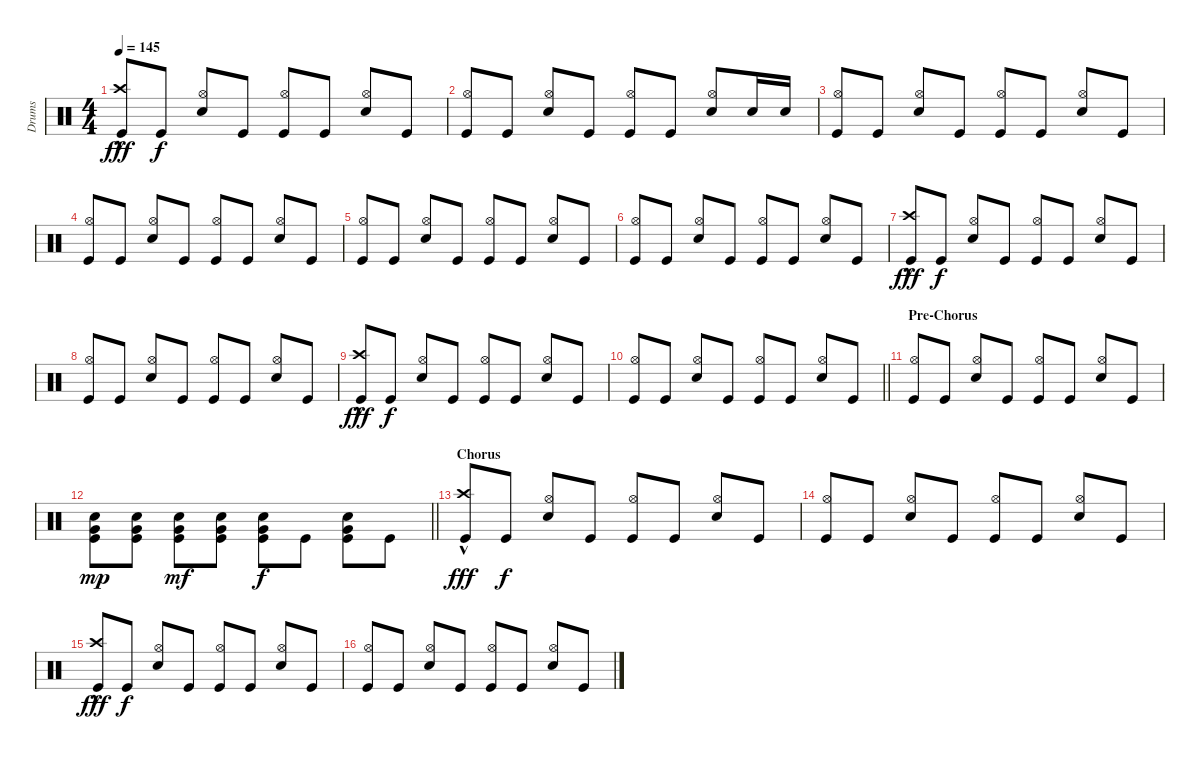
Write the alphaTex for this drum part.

\track ("Drums" "Drums") {instrument percussion}
\staff {score}
\articulation defaults
\ts (4 4)
\tempo 145
\clef neutral
\ks c
("Crash high (hit)"{hac} "Kick (hit)").8{dy fff beam Up} "Kick (hit)".8{dy f beam Up} ("Hi-Hat (open)" "Snare (hit) 2").8{beam Up} "Kick (hit)".8{beam Up} ("Hi-Hat (open)" "Kick (hit)").8{beam Up} "Kick (hit)".8{beam Up} ("Hi-Hat (open)" "Snare (hit) 2").8{beam Up} "Kick (hit)".8{beam Up} |
("Hi-Hat (open)" "Kick (hit)").8{beam Up} "Kick (hit)".8{beam Up} ("Hi-Hat (open)" "Snare (hit) 2").8{beam Up} "Kick (hit)".8{beam Up} ("Hi-Hat (open)" "Kick (hit)").8{beam Up} "Kick (hit)".8{beam Up} ("Hi-Hat (open)" "Snare (hit) 2").8{beam Up} "Snare (hit) 2".16{beam Up} "Snare (hit) 2".16{beam Up} |
("Hi-Hat (open)" "Kick (hit)").8{beam Up} "Kick (hit)".8{beam Up} ("Hi-Hat (open)" "Snare (hit) 2").8{beam Up} "Kick (hit)".8{beam Up} ("Hi-Hat (open)" "Kick (hit)").8{beam Up} "Kick (hit)".8{beam Up} ("Hi-Hat (open)" "Snare (hit) 2").8{beam Up} "Kick (hit)".8{beam Up} |
("Hi-Hat (open)" "Kick (hit)").8{beam Up} "Kick (hit)".8{beam Up} ("Hi-Hat (open)" "Snare (hit) 2").8{beam Up} "Kick (hit)".8{beam Up} ("Hi-Hat (open)" "Kick (hit)").8{beam Up} "Kick (hit)".8{beam Up} ("Hi-Hat (open)" "Snare (hit) 2").8{beam Up} "Kick (hit)".8{beam Up} |
("Hi-Hat (open)" "Kick (hit)").8{beam Up} "Kick (hit)".8{beam Up} ("Hi-Hat (open)" "Snare (hit) 2").8{beam Up} "Kick (hit)".8{beam Up} ("Hi-Hat (open)" "Kick (hit)").8{beam Up} "Kick (hit)".8{beam Up} ("Hi-Hat (open)" "Snare (hit) 2").8{beam Up} "Kick (hit)".8{beam Up} |
("Hi-Hat (open)" "Kick (hit)").8{beam Up} "Kick (hit)".8{beam Up} ("Hi-Hat (open)" "Snare (hit) 2").8{beam Up} "Kick (hit)".8{beam Up} ("Hi-Hat (open)" "Kick (hit)").8{beam Up} "Kick (hit)".8{beam Up} ("Hi-Hat (open)" "Snare (hit) 2").8{beam Up} "Kick (hit)".8{beam Up} |
("Crash high (hit)"{hac} "Kick (hit)").8{dy fff beam Up} "Kick (hit)".8{dy f beam Up} ("Hi-Hat (open)" "Snare (hit) 2").8{beam Up} "Kick (hit)".8{beam Up} ("Hi-Hat (open)" "Kick (hit)").8{beam Up} "Kick (hit)".8{beam Up} ("Hi-Hat (open)" "Snare (hit) 2").8{beam Up} "Kick (hit)".8{beam Up} |
("Hi-Hat (open)" "Kick (hit)").8{beam Up} "Kick (hit)".8{beam Up} ("Hi-Hat (open)" "Snare (hit) 2").8{beam Up} "Kick (hit)".8{beam Up} ("Hi-Hat (open)" "Kick (hit)").8{beam Up} "Kick (hit)".8{beam Up} ("Hi-Hat (open)" "Snare (hit) 2").8{beam Up} "Kick (hit)".8{beam Up} |
("Crash high (hit)"{hac} "Kick (hit)").8{dy fff beam Up} "Kick (hit)".8{dy f beam Up} ("Hi-Hat (open)" "Snare (hit) 2").8{beam Up} "Kick (hit)".8{beam Up} ("Hi-Hat (open)" "Kick (hit)").8{beam Up} "Kick (hit)".8{beam Up} ("Hi-Hat (open)" "Snare (hit) 2").8{beam Up} "Kick (hit)".8{beam Up} |
\barLineRight lightlight
("Hi-Hat (open)" "Kick (hit)").8{beam Up} "Kick (hit)".8{beam Up} ("Hi-Hat (open)" "Snare (hit) 2").8{beam Up} "Kick (hit)".8{beam Up} ("Hi-Hat (open)" "Kick (hit)").8{beam Up} "Kick (hit)".8{beam Up} ("Hi-Hat (open)" "Snare (hit) 2").8{beam Up} "Kick (hit)".8{beam Up} |
\section ("" "Pre-Chorus")
("Hi-Hat (open)" "Kick (hit)").8{beam Up} "Kick (hit)".8{beam Up} ("Hi-Hat (open)" "Snare (hit) 2").8{beam Up} "Kick (hit)".8{beam Up} ("Hi-Hat (open)" "Kick (hit)").8{beam Up} "Kick (hit)".8{beam Up} ("Hi-Hat (open)" "Snare (hit) 2").8{beam Up} "Kick (hit)".8{beam Up} |
\barLineRight lightlight
("Snare (hit) 2" "Very Low Tom (hit)" "Kick (hit)").8{dy mp beam Down} ("Snare (hit) 2" "Very Low Tom (hit)" "Kick (hit)").8{beam Down} ("Snare (hit) 2" "Very Low Tom (hit)" "Kick (hit)").8{dy mf beam Down} ("Snare (hit) 2" "Very Low Tom (hit)" "Kick (hit)").8{beam Down} ("Snare (hit) 2" "Very Low Tom (hit)" "Kick (hit)").8{dy f beam Down} "Kick (hit)".8{beam Down} ("Snare (hit) 2" "Very Low Tom (hit)" "Kick (hit)").8{beam Down} "Kick (hit)".8{beam Down} |
\section ("" "Chorus")
("Crash high (hit)"{hac} "Kick (hit)").8{dy fff beam Up} "Kick (hit)".8{dy f beam Up} ("Hi-Hat (open)" "Snare (hit) 2").8{beam Up} "Kick (hit)".8{beam Up} ("Hi-Hat (open)" "Kick (hit)").8{beam Up} "Kick (hit)".8{beam Up} ("Hi-Hat (open)" "Snare (hit) 2").8{beam Up} "Kick (hit)".8{beam Up} |
("Hi-Hat (open)" "Kick (hit)").8{beam Up} "Kick (hit)".8{beam Up} ("Hi-Hat (open)" "Snare (hit) 2").8{beam Up} "Kick (hit)".8{beam Up} ("Hi-Hat (open)" "Kick (hit)").8{beam Up} "Kick (hit)".8{beam Up} ("Hi-Hat (open)" "Snare (hit) 2").8{beam Up} "Kick (hit)".8{beam Up} |
("Crash high (hit)"{hac} "Kick (hit)").8{dy fff beam Up} "Kick (hit)".8{dy f beam Up} ("Hi-Hat (open)" "Snare (hit) 2").8{beam Up} "Kick (hit)".8{beam Up} ("Hi-Hat (open)" "Kick (hit)").8{beam Up} "Kick (hit)".8{beam Up} ("Hi-Hat (open)" "Snare (hit) 2").8{beam Up} "Kick (hit)".8{beam Up} |
("Hi-Hat (open)" "Kick (hit)").8{beam Up} "Kick (hit)".8{beam Up} ("Hi-Hat (open)" "Snare (hit) 2").8{beam Up} "Kick (hit)".8{beam Up} ("Hi-Hat (open)" "Kick (hit)").8{beam Up} "Kick (hit)".8{beam Up} ("Hi-Hat (open)" "Snare (hit) 2").8{beam Up} "Kick (hit)".8{beam Up}
